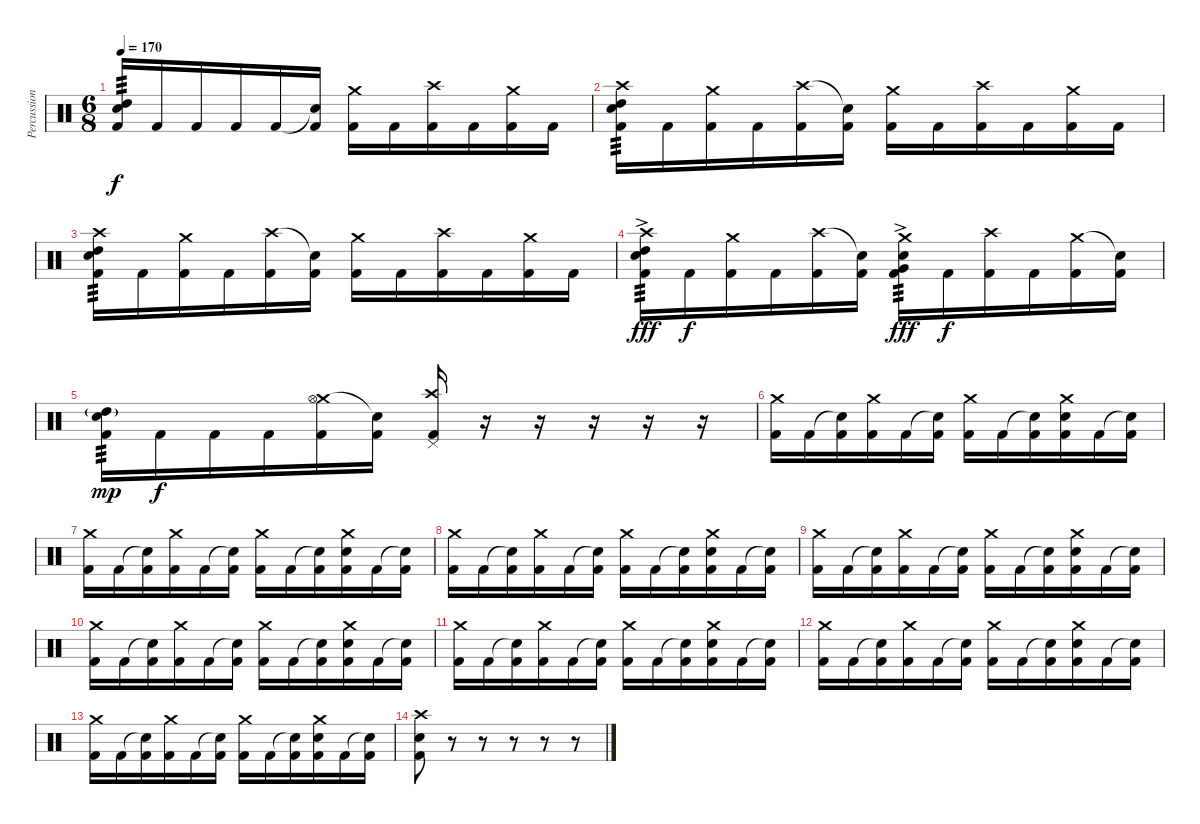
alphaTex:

\track ("Percussions" "Percussion") {instrument percussion}
\staff {score}
\articulation defaults
\ts (6 8)
\tempo 170
\clef neutral
\ks c
("Snare (hit) 2" "High Tom (hit)" "Kick (hit) 2").16{tp 3 dy f} "Kick (hit) 2".16 "Kick (hit) 2".16 "Kick (hit) 2".16 "Kick (hit) 2".16 ("Snare (hit)"{t} "Kick (hit) 2").16 ("Crash medium (hit)" "Kick (hit) 2").16 "Kick (hit) 2".16 ("Crash high (hit)" "Kick (hit) 2").16 "Kick (hit) 2".16 ("Crash medium (hit)" "Kick (hit) 2").16 "Kick (hit) 2".16 |
("Crash high (hit)" "Snare (hit) 2" "High Tom (hit)" "Kick (hit) 2").16{tp 3} "Kick (hit) 2".16 ("Crash medium (hit)" "Kick (hit) 2").16 "Kick (hit) 2".16 ("Crash high (hit)" "Kick (hit) 2").16 ("Snare (hit)"{t} "Kick (hit) 2").16 ("Crash medium (hit)" "Kick (hit) 2").16 "Kick (hit) 2".16 ("Crash high (hit)" "Kick (hit) 2").16 "Kick (hit) 2".16 ("Crash medium (hit)" "Kick (hit) 2").16 "Kick (hit) 2".16 |
("Crash high (hit)" "Snare (hit) 2" "High Tom (hit)" "Kick (hit) 2").16{tp 3} "Kick (hit) 2".16 ("Crash medium (hit)" "Kick (hit) 2").16 "Kick (hit) 2".16 ("Crash high (hit)" "Kick (hit) 2").16 ("Snare (hit)"{t} "Kick (hit) 2").16 ("Crash medium (hit)" "Kick (hit) 2").16 "Kick (hit) 2".16 ("Crash high (hit)" "Kick (hit) 2").16 "Kick (hit) 2".16 ("Crash medium (hit)" "Kick (hit) 2").16 "Kick (hit) 2".16 |
("Crash high (hit)" "Snare (hit) 2" "High Tom (hit)"{ac} "Kick (hit) 2").16{tp 3 dy fff} "Kick (hit) 2".16{dy f} ("Crash medium (hit)" "Kick (hit) 2").16 "Kick (hit) 2".16 ("Crash high (hit)" "Kick (hit) 2").16 ("Snare (hit)"{t} "Kick (hit) 2").16 ("Crash medium (hit)" "Snare (hit) 2" "Very Low Tom (hit)"{ac} "Kick (hit) 2").16{tp 3 dy fff} "Kick (hit) 2".16{dy f} ("Crash high (hit)" "Kick (hit) 2").16 "Kick (hit) 2".16 ("Crash medium (hit)" "Kick (hit) 2").16 ("Snare (hit)"{t} "Kick (hit) 2").16 |
("Snare (hit) 2" "High Tom (hit)"{g} "Kick (hit) 2").16{tp 3 dy mp} "Kick (hit) 2".16{dy f} "Kick (hit) 2".16 "Kick (hit) 2".16 ("Crash medium (hit)" "Hi-Hat (open)" "Kick (hit) 2").16 ("Snare (hit)"{t} "Kick (hit) 2").16 ("Crash high (hit)" "Pedal Hi-Hat (hit)" "Kick (hit) 2").16 r.16 r.16 r.16 r.16 r.16 |
("Crash medium (hit)" "Kick (hit) 2").16 "Kick (hit) 2".16 ("Snare (hit)"{t} "Kick (hit) 2").16 ("Crash medium (hit)" "Kick (hit) 2").16 "Kick (hit) 2".16 ("Snare (hit)"{t} "Kick (hit) 2").16 ("Crash medium (hit)" "Kick (hit) 2").16 "Kick (hit) 2".16 ("Snare (hit)"{t} "Kick (hit) 2").16 ("Snare (hit) 2" "Crash medium (hit)" "Kick (hit) 2").16 "Kick (hit) 2".16 ("Snare (hit)"{t} "Kick (hit) 2").16 |
("Crash medium (hit)" "Kick (hit) 2").16 "Kick (hit) 2".16 ("Snare (hit)"{t} "Kick (hit) 2").16 ("Crash medium (hit)" "Kick (hit) 2").16 "Kick (hit) 2".16 ("Snare (hit)"{t} "Kick (hit) 2").16 ("Crash medium (hit)" "Kick (hit) 2").16 "Kick (hit) 2".16 ("Snare (hit)"{t} "Kick (hit) 2").16 ("Snare (hit) 2" "Crash medium (hit)" "Kick (hit) 2").16 "Kick (hit) 2".16 ("Snare (hit)"{t} "Kick (hit) 2").16 |
("Crash medium (hit)" "Kick (hit) 2").16 "Kick (hit) 2".16 ("Snare (hit)"{t} "Kick (hit) 2").16 ("Crash medium (hit)" "Kick (hit) 2").16 "Kick (hit) 2".16 ("Snare (hit)"{t} "Kick (hit) 2").16 ("Crash medium (hit)" "Kick (hit) 2").16 "Kick (hit) 2".16 ("Snare (hit)"{t} "Kick (hit) 2").16 ("Snare (hit) 2" "Crash medium (hit)" "Kick (hit) 2").16 "Kick (hit) 2".16 ("Snare (hit)"{t} "Kick (hit) 2").16 |
("Crash medium (hit)" "Kick (hit) 2").16 "Kick (hit) 2".16 ("Snare (hit)"{t} "Kick (hit) 2").16 ("Crash medium (hit)" "Kick (hit) 2").16 "Kick (hit) 2".16 ("Snare (hit)"{t} "Kick (hit) 2").16 ("Crash medium (hit)" "Kick (hit) 2").16 "Kick (hit) 2".16 ("Snare (hit)"{t} "Kick (hit) 2").16 ("Snare (hit) 2" "Crash medium (hit)" "Kick (hit) 2").16 "Kick (hit) 2".16 ("Snare (hit)"{t} "Kick (hit) 2").16 |
("Crash medium (hit)" "Kick (hit) 2").16 "Kick (hit) 2".16 ("Snare (hit)"{t} "Kick (hit) 2").16 ("Crash medium (hit)" "Kick (hit) 2").16 "Kick (hit) 2".16 ("Snare (hit)"{t} "Kick (hit) 2").16 ("Crash medium (hit)" "Kick (hit) 2").16 "Kick (hit) 2".16 ("Snare (hit)"{t} "Kick (hit) 2").16 ("Snare (hit) 2" "Crash medium (hit)" "Kick (hit) 2").16 "Kick (hit) 2".16 ("Snare (hit)"{t} "Kick (hit) 2").16 |
("Crash medium (hit)" "Kick (hit) 2").16 "Kick (hit) 2".16 ("Snare (hit)"{t} "Kick (hit) 2").16 ("Crash medium (hit)" "Kick (hit) 2").16 "Kick (hit) 2".16 ("Snare (hit)"{t} "Kick (hit) 2").16 ("Crash medium (hit)" "Kick (hit) 2").16 "Kick (hit) 2".16 ("Snare (hit)"{t} "Kick (hit) 2").16 ("Snare (hit) 2" "Crash medium (hit)" "Kick (hit) 2").16 "Kick (hit) 2".16 ("Snare (hit)"{t} "Kick (hit) 2").16 |
("Crash medium (hit)" "Kick (hit) 2").16 "Kick (hit) 2".16 ("Snare (hit)"{t} "Kick (hit) 2").16 ("Crash medium (hit)" "Kick (hit) 2").16 "Kick (hit) 2".16 ("Snare (hit)"{t} "Kick (hit) 2").16 ("Crash medium (hit)" "Kick (hit) 2").16 "Kick (hit) 2".16 ("Snare (hit)"{t} "Kick (hit) 2").16 ("Snare (hit) 2" "Crash medium (hit)" "Kick (hit) 2").16 "Kick (hit) 2".16 ("Snare (hit)"{t} "Kick (hit) 2").16 |
("Crash medium (hit)" "Kick (hit) 2").16 "Kick (hit) 2".16 ("Snare (hit)"{t} "Kick (hit) 2").16 ("Crash medium (hit)" "Kick (hit) 2").16 "Kick (hit) 2".16 ("Snare (hit)"{t} "Kick (hit) 2").16 ("Crash medium (hit)" "Kick (hit) 2").16 "Kick (hit) 2".16 ("Snare (hit)"{t} "Kick (hit) 2").16 ("Snare (hit) 2" "Crash medium (hit)" "Kick (hit) 2").16 "Kick (hit) 2".16 ("Snare (hit)"{t} "Kick (hit) 2").16 |
("Snare (hit) 2" "Crash high (hit)" "Kick (hit) 2").8 r.8 r.8 r.8 r.8 r.8
